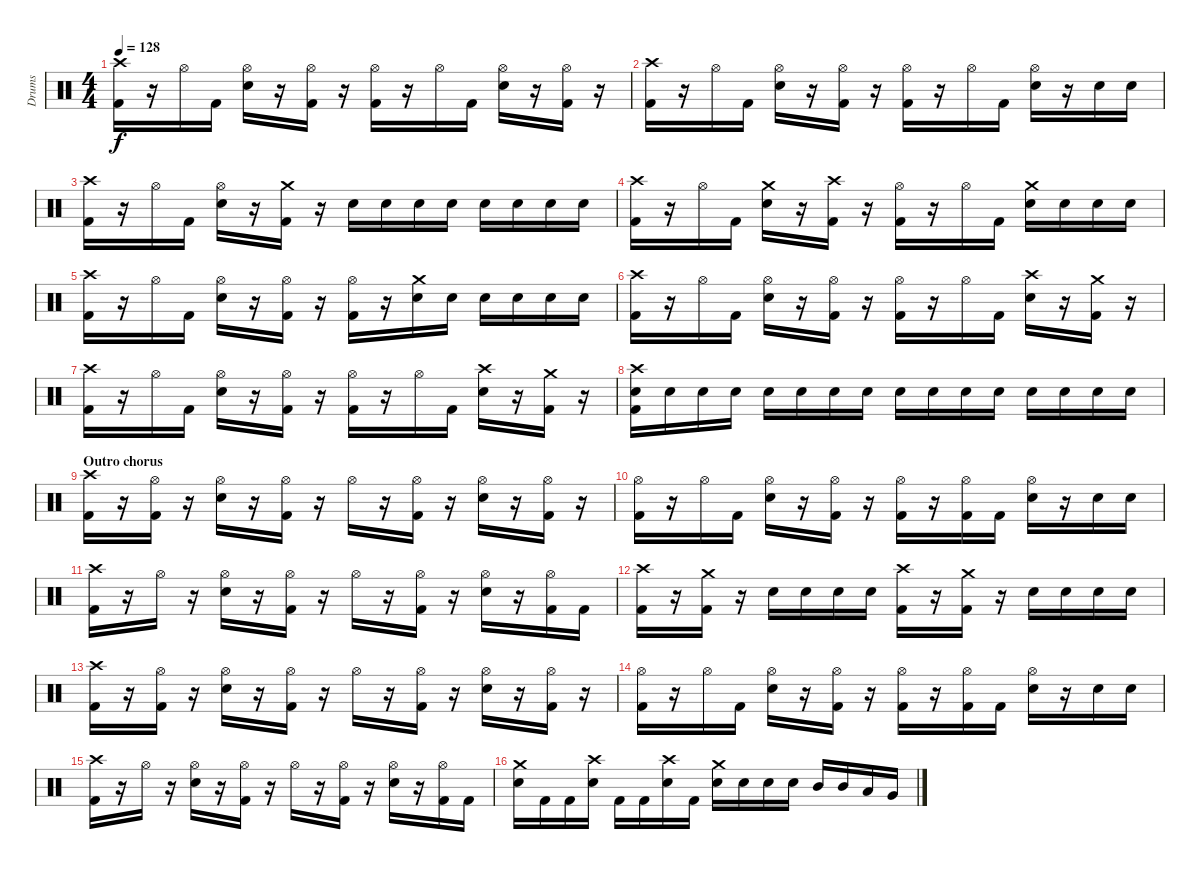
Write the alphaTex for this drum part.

\track ("Drums" "Drums") {instrument percussion}
\staff {score}
\articulation defaults
\ts (4 4)
\tempo 128
\clef neutral
\ks c
("Crash high (hit)" "Kick (hit) 2").16{dy f} r.16 "Hi-Hat (open)".16 "Kick (hit) 2".16 ("Hi-Hat (open)" "Snare (hit) 2").16 r.16 ("Hi-Hat (open)" "Kick (hit) 2").16 r.16 ("Hi-Hat (open)" "Kick (hit) 2").16 r.16 "Hi-Hat (open)".16 "Kick (hit) 2".16 ("Hi-Hat (open)" "Snare (hit) 2").16 r.16 ("Hi-Hat (open)" "Kick (hit) 2").16 r.16 |
("Crash high (hit)" "Kick (hit) 2").16 r.16 "Hi-Hat (open)".16 "Kick (hit) 2".16 ("Hi-Hat (open)" "Snare (hit) 2").16 r.16 ("Hi-Hat (open)" "Kick (hit) 2").16 r.16 ("Hi-Hat (open)" "Kick (hit) 2").16 r.16 "Hi-Hat (open)".16 "Kick (hit) 2".16 ("Hi-Hat (open)" "Snare (hit) 2").16 r.16 "Snare (hit) 2".16 "Snare (hit) 2".16 |
("Crash high (hit)" "Kick (hit) 2").16 r.16 "Hi-Hat (open)".16 "Kick (hit) 2".16 ("Hi-Hat (open)" "Snare (hit) 2").16 r.16 ("Crash medium (hit)" "Kick (hit) 2").16 r.16 "Snare (hit) 2".16 "Snare (hit) 2".16 "Snare (hit) 2".16 "Snare (hit) 2".16 "Snare (hit) 2".16 "Snare (hit) 2".16 "Snare (hit) 2".16 "Snare (hit) 2".16 |
("Crash high (hit)" "Kick (hit) 2").16 r.16 "Hi-Hat (open)".16 "Kick (hit) 2".16 ("Crash medium (hit)" "Snare (hit) 2").16 r.16 ("Crash high (hit)" "Kick (hit) 2").16 r.16 ("Hi-Hat (open)" "Kick (hit) 2").16 r.16 "Hi-Hat (open)".16 "Kick (hit) 2".16 ("Crash medium (hit)" "Snare (hit) 2").16 "Snare (hit) 2".16 "Snare (hit) 2".16 "Snare (hit) 2".16 |
("Crash high (hit)" "Kick (hit) 2").16 r.16 "Hi-Hat (open)".16 "Kick (hit) 2".16 ("Hi-Hat (open)" "Snare (hit) 2").16 r.16 ("Hi-Hat (open)" "Kick (hit) 2").16 r.16 ("Hi-Hat (open)" "Kick (hit) 2").16 r.16 ("Crash medium (hit)" "Snare (hit) 2").16 "Snare (hit) 2".16 "Snare (hit) 2".16 "Snare (hit) 2".16 "Snare (hit) 2".16 "Snare (hit) 2".16 |
("Crash high (hit)" "Kick (hit) 2").16 r.16 "Hi-Hat (open)".16 "Kick (hit) 2".16 ("Hi-Hat (open)" "Snare (hit) 2").16 r.16 ("Hi-Hat (open)" "Kick (hit) 2").16 r.16 ("Hi-Hat (open)" "Kick (hit) 2").16 r.16 "Hi-Hat (open)".16 "Kick (hit) 2".16 ("Crash high (hit)" "Snare (hit) 2").16 r.16 ("Crash medium (hit)" "Kick (hit) 2").16 r.16 |
("Crash high (hit)" "Kick (hit) 2").16 r.16 "Hi-Hat (open)".16 "Kick (hit) 2".16 ("Hi-Hat (open)" "Snare (hit) 2").16 r.16 ("Hi-Hat (open)" "Kick (hit) 2").16 r.16 ("Hi-Hat (open)" "Kick (hit) 2").16 r.16 "Hi-Hat (open)".16 "Kick (hit) 2".16 ("Crash high (hit)" "Snare (hit) 2").16 r.16 ("Crash medium (hit)" "Kick (hit) 2").16 r.16 |
("Crash high (hit)" "Snare (hit) 2" "Kick (hit) 2").16 "Snare (hit) 2".16 "Snare (hit) 2".16 "Snare (hit) 2".16 "Snare (hit) 2".16 "Snare (hit) 2".16 "Snare (hit) 2".16 "Snare (hit) 2".16 "Snare (hit) 2".16 "Snare (hit) 2".16 "Snare (hit) 2".16 "Snare (hit) 2".16 "Snare (hit) 2".16 "Snare (hit) 2".16 "Snare (hit) 2".16 "Snare (hit) 2".16 |
\section ("" "Outro chorus")
("Crash high (hit)" "Kick (hit) 2").16 r.16 ("Hi-Hat (open)" "Kick (hit) 2").16 r.16 ("Hi-Hat (open)" "Snare (hit) 2").16 r.16 ("Hi-Hat (open)" "Kick (hit) 2").16 r.16 "Hi-Hat (open)".16 r.16 ("Hi-Hat (open)" "Kick (hit) 2").16 r.16 ("Hi-Hat (open)" "Snare (hit) 2").16 r.16 ("Hi-Hat (open)" "Kick (hit) 2").16 r.16 |
("Hi-Hat (open)" "Kick (hit) 2").16 r.16 "Hi-Hat (open)".16 "Kick (hit) 2".16 ("Hi-Hat (open)" "Snare (hit) 2").16 r.16 ("Hi-Hat (open)" "Kick (hit) 2").16 r.16 ("Hi-Hat (open)" "Kick (hit) 2").16 r.16 ("Hi-Hat (open)" "Kick (hit) 2").16 "Kick (hit) 2".16 ("Hi-Hat (open)" "Snare (hit) 2").16 r.16 "Snare (hit) 2".16 "Snare (hit) 2".16 |
("Crash high (hit)" "Kick (hit) 2").16 r.16 "Hi-Hat (open)".16 r.16 ("Hi-Hat (open)" "Snare (hit) 2").16 r.16 ("Hi-Hat (open)" "Kick (hit) 2").16 r.16 "Hi-Hat (open)".16 r.16 ("Hi-Hat (open)" "Kick (hit) 2").16 r.16 ("Hi-Hat (open)" "Snare (hit) 2").16 r.16 ("Hi-Hat (open)" "Kick (hit) 2").16 "Kick (hit) 2".16 |
("Crash high (hit)" "Kick (hit) 2").16 r.16 ("Crash medium (hit)" "Kick (hit) 2").16 r.16 "Snare (hit) 2".16 "Snare (hit) 2".16 "Snare (hit) 2".16 "Snare (hit) 2".16 ("Crash high (hit)" "Kick (hit) 2").16 r.16 ("Crash medium (hit)" "Kick (hit) 2").16 r.16 "Snare (hit) 2".16 "Snare (hit) 2".16 "Snare (hit) 2".16 "Snare (hit) 2".16 |
("Crash high (hit)" "Kick (hit) 2").16 r.16 ("Hi-Hat (open)" "Kick (hit) 2").16 r.16 ("Hi-Hat (open)" "Snare (hit) 2").16 r.16 ("Hi-Hat (open)" "Kick (hit) 2").16 r.16 "Hi-Hat (open)".16 r.16 ("Hi-Hat (open)" "Kick (hit) 2").16 r.16 ("Hi-Hat (open)" "Snare (hit) 2").16 r.16 ("Hi-Hat (open)" "Kick (hit) 2").16 r.16 |
("Hi-Hat (open)" "Kick (hit) 2").16 r.16 "Hi-Hat (open)".16 "Kick (hit) 2".16 ("Hi-Hat (open)" "Snare (hit) 2").16 r.16 ("Hi-Hat (open)" "Kick (hit) 2").16 r.16 ("Hi-Hat (open)" "Kick (hit) 2").16 r.16 ("Hi-Hat (open)" "Kick (hit) 2").16 "Kick (hit) 2".16 ("Hi-Hat (open)" "Snare (hit) 2").16 r.16 "Snare (hit) 2".16 "Snare (hit) 2".16 |
("Crash high (hit)" "Kick (hit) 2").16 r.16 "Hi-Hat (open)".16 r.16 ("Hi-Hat (open)" "Snare (hit) 2").16 r.16 ("Hi-Hat (open)" "Kick (hit) 2").16 r.16 "Hi-Hat (open)".16 r.16 ("Hi-Hat (open)" "Kick (hit) 2").16 r.16 ("Hi-Hat (open)" "Snare (hit) 2").16 r.16 ("Hi-Hat (open)" "Kick (hit) 2").16 "Kick (hit) 2".16 |
("Crash medium (hit)" "Snare (hit) 2").16 "Kick (hit) 2".16 "Kick (hit) 2".16 ("Crash high (hit)" "Snare (hit) 2").16 "Kick (hit) 2".16 "Kick (hit) 2".16 ("Crash high (hit)" "Snare (hit) 2").16 "Kick (hit) 2".16 ("Crash medium (hit)" "Snare (hit) 2").16 "Snare (hit) 2".16 "Snare (hit) 2".16 "Snare (hit) 2".16 "Mid Tom (hit)".16 "Mid Tom (hit)".16 "Low Tom (hit)".16 "Very Low Tom (hit)".16
